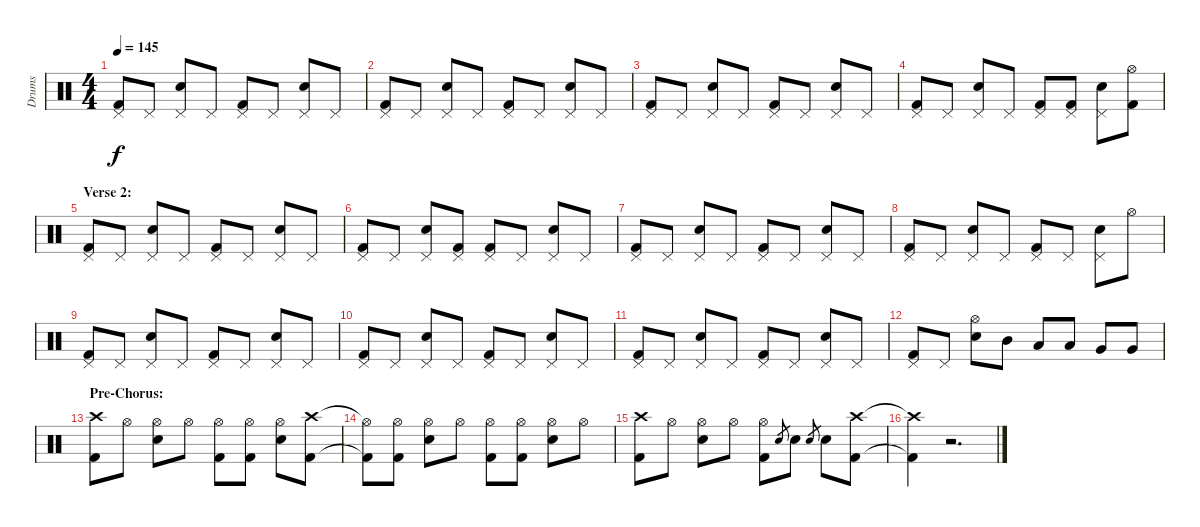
\track ("Drums" "Drums") {instrument percussion}
\staff {score}
\articulation defaults
\ts (4 4)
\tempo 145
\clef neutral
\ks c
("Pedal Hi-Hat (hit)" "Kick (hit) 2").8{dy f} "Pedal Hi-Hat (hit)".8 ("Pedal Hi-Hat (hit)" "Electric Snare (hit)").8 "Pedal Hi-Hat (hit)".8 ("Pedal Hi-Hat (hit)" "Kick (hit) 2").8 "Pedal Hi-Hat (hit)".8 ("Pedal Hi-Hat (hit)" "Electric Snare (hit)").8 "Pedal Hi-Hat (hit)".8 |
("Pedal Hi-Hat (hit)" "Kick (hit) 2").8 "Pedal Hi-Hat (hit)".8 ("Pedal Hi-Hat (hit)" "Electric Snare (hit)").8 "Pedal Hi-Hat (hit)".8 ("Pedal Hi-Hat (hit)" "Kick (hit) 2").8 "Pedal Hi-Hat (hit)".8 ("Pedal Hi-Hat (hit)" "Electric Snare (hit)").8 "Pedal Hi-Hat (hit)".8 |
("Pedal Hi-Hat (hit)" "Kick (hit) 2").8 "Pedal Hi-Hat (hit)".8 ("Pedal Hi-Hat (hit)" "Electric Snare (hit)").8 "Pedal Hi-Hat (hit)".8 ("Pedal Hi-Hat (hit)" "Kick (hit) 2").8 "Pedal Hi-Hat (hit)".8 ("Pedal Hi-Hat (hit)" "Electric Snare (hit)").8 "Pedal Hi-Hat (hit)".8 |
("Pedal Hi-Hat (hit)" "Kick (hit) 2").8 "Pedal Hi-Hat (hit)".8 ("Pedal Hi-Hat (hit)" "Electric Snare (hit)").8 "Pedal Hi-Hat (hit)".8 ("Pedal Hi-Hat (hit)" "Kick (hit) 2").8 ("Pedal Hi-Hat (hit)" "Kick (hit) 2").8 ("Pedal Hi-Hat (hit)" "Electric Snare (hit)").8 ("Hi-Hat (open)" "Kick (hit) 2").8 |
\section ("" "Verse 2:")
("Pedal Hi-Hat (hit)" "Kick (hit) 2").8 "Pedal Hi-Hat (hit)".8 ("Pedal Hi-Hat (hit)" "Electric Snare (hit)").8 "Pedal Hi-Hat (hit)".8 ("Pedal Hi-Hat (hit)" "Kick (hit) 2").8 "Pedal Hi-Hat (hit)".8 ("Pedal Hi-Hat (hit)" "Electric Snare (hit)").8 "Pedal Hi-Hat (hit)".8 |
("Pedal Hi-Hat (hit)" "Kick (hit) 2").8 "Pedal Hi-Hat (hit)".8 ("Pedal Hi-Hat (hit)" "Electric Snare (hit)").8 ("Pedal Hi-Hat (hit)" "Kick (hit) 2").8 ("Pedal Hi-Hat (hit)" "Kick (hit) 2").8 "Pedal Hi-Hat (hit)".8 ("Pedal Hi-Hat (hit)" "Electric Snare (hit)").8 "Pedal Hi-Hat (hit)".8 |
("Pedal Hi-Hat (hit)" "Kick (hit) 2").8 "Pedal Hi-Hat (hit)".8 ("Pedal Hi-Hat (hit)" "Electric Snare (hit)").8 "Pedal Hi-Hat (hit)".8 ("Pedal Hi-Hat (hit)" "Kick (hit) 2").8 "Pedal Hi-Hat (hit)".8 ("Pedal Hi-Hat (hit)" "Electric Snare (hit)").8 "Pedal Hi-Hat (hit)".8 |
("Pedal Hi-Hat (hit)" "Kick (hit) 2").8 "Pedal Hi-Hat (hit)".8 ("Pedal Hi-Hat (hit)" "Electric Snare (hit)").8 "Pedal Hi-Hat (hit)".8 ("Pedal Hi-Hat (hit)" "Kick (hit) 2").8 "Pedal Hi-Hat (hit)".8 ("Pedal Hi-Hat (hit)" "Electric Snare (hit)").8 "Hi-Hat (open)".8 |
("Pedal Hi-Hat (hit)" "Kick (hit) 2").8 "Pedal Hi-Hat (hit)".8 ("Pedal Hi-Hat (hit)" "Electric Snare (hit)").8 "Pedal Hi-Hat (hit)".8 ("Pedal Hi-Hat (hit)" "Kick (hit) 2").8 "Pedal Hi-Hat (hit)".8 ("Pedal Hi-Hat (hit)" "Electric Snare (hit)").8 "Pedal Hi-Hat (hit)".8 |
("Pedal Hi-Hat (hit)" "Kick (hit) 2").8 "Pedal Hi-Hat (hit)".8 ("Pedal Hi-Hat (hit)" "Electric Snare (hit)").8 "Pedal Hi-Hat (hit)".8 ("Pedal Hi-Hat (hit)" "Kick (hit) 2").8 "Pedal Hi-Hat (hit)".8 ("Pedal Hi-Hat (hit)" "Electric Snare (hit)").8 "Pedal Hi-Hat (hit)".8 |
("Pedal Hi-Hat (hit)" "Kick (hit) 2").8 "Pedal Hi-Hat (hit)".8 ("Pedal Hi-Hat (hit)" "Electric Snare (hit)").8 "Pedal Hi-Hat (hit)".8 ("Pedal Hi-Hat (hit)" "Kick (hit) 2").8 "Pedal Hi-Hat (hit)".8 ("Pedal Hi-Hat (hit)" "Electric Snare (hit)").8 "Pedal Hi-Hat (hit)".8 |
("Pedal Hi-Hat (hit)" "Kick (hit) 2").8 "Pedal Hi-Hat (hit)".8 ("Hi-Hat (open)" "Electric Snare (hit)").8 "Mid Tom (hit)".8 "Low Tom (hit)".8 "Low Tom (hit)".8 "Very Low Tom (hit)".8 "Very Low Tom (hit)".8 |
\section ("" "Pre-Chorus:")
("Crash high (hit)" "Kick (hit) 2").8 "Hi-Hat (open)".8 ("Hi-Hat (open)" "Electric Snare (hit)").8 "Hi-Hat (open)".8 ("Hi-Hat (open)" "Kick (hit) 2").8 ("Hi-Hat (open)" "Kick (hit) 2").8 ("Hi-Hat (open)" "Electric Snare (hit)").8 ("Crash high (hit)" "Kick (hit) 2").8 |
("Hi-Hat (open)"{t} "Kick (hit) 2"{t}).8 ("Hi-Hat (open)" "Kick (hit) 2").8 ("Hi-Hat (open)" "Electric Snare (hit)").8 "Hi-Hat (open)".8 ("Hi-Hat (open)" "Kick (hit) 2").8 ("Hi-Hat (open)" "Kick (hit) 2").8 ("Hi-Hat (open)" "Electric Snare (hit)").8 "Hi-Hat (open)".8 |
("Crash high (hit)" "Kick (hit) 2").8 "Hi-Hat (open)".8 ("Hi-Hat (open)" "Electric Snare (hit)").8 "Hi-Hat (open)".8 ("Hi-Hat (open)" "Kick (hit) 2").8 "Electric Snare (hit)".8{gr} "Electric Snare (hit)".8 "Electric Snare (hit)".8{gr} "Electric Snare (hit)".8 ("Crash high (hit)" "Kick (hit) 2").8 |
("Crash high (hit)"{t} "Kick (hit) 2"{t}).4 r.2{d}
